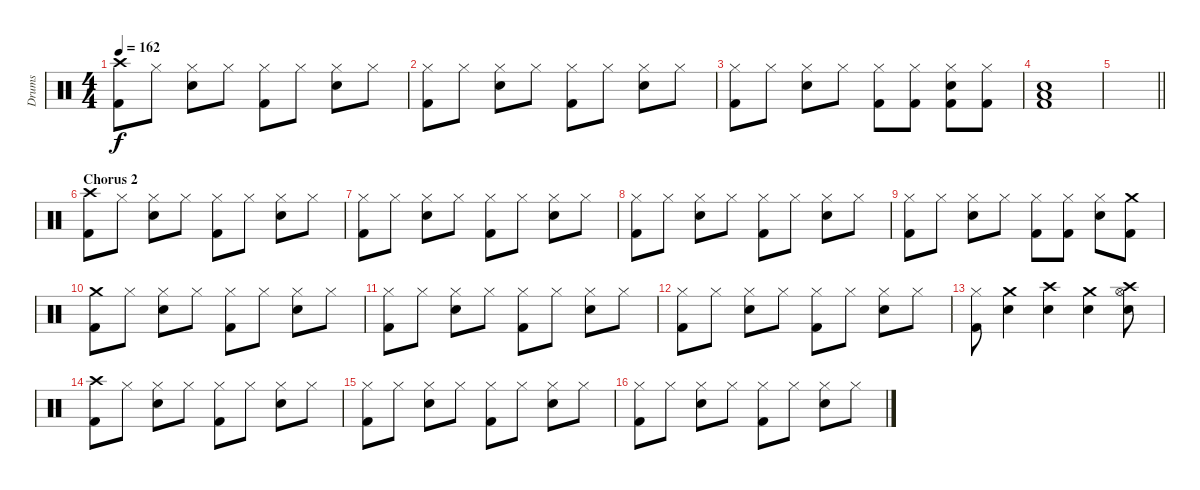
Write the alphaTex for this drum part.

\track ("Drums" "Drums") {instrument percussion}
\staff {score}
\articulation defaults
\ts (4 4)
\tempo 162
\clef neutral
\ks c
("Crash high (hit)" "Kick (hit) 2").8{dy f} "Hi-Hat (closed)".8 ("Hi-Hat (closed)" "Electric Snare (hit)").8 "Hi-Hat (closed)".8 ("Hi-Hat (closed)" "Kick (hit) 2").8 "Hi-Hat (closed)".8 ("Hi-Hat (closed)" "Electric Snare (hit)").8 "Hi-Hat (closed)".8 |
("Hi-Hat (closed)" "Kick (hit) 2").8 "Hi-Hat (closed)".8 ("Hi-Hat (closed)" "Electric Snare (hit)").8 "Hi-Hat (closed)".8 ("Hi-Hat (closed)" "Kick (hit) 2").8 "Hi-Hat (closed)".8 ("Hi-Hat (closed)" "Electric Snare (hit)").8 "Hi-Hat (closed)".8 |
("Hi-Hat (closed)" "Kick (hit) 2").8 "Hi-Hat (closed)".8 ("Hi-Hat (closed)" "Electric Snare (hit)").8 "Hi-Hat (closed)".8 ("Hi-Hat (closed)" "Kick (hit) 2").8 ("Hi-Hat (closed)" "Kick (hit) 2").8 ("Hi-Hat (closed)" "Electric Snare (hit)" "Kick (hit) 2").8 ("Hi-Hat (closed)" "Kick (hit) 2").8 |
("Low Floor Tom (hit)" "Electric Snare (hit)" "Kick (hit) 2").1 |
\barLineRight lightlight
|
\section ("" "Chorus 2")
("Crash high (hit)" "Kick (hit) 2").8 "Hi-Hat (closed)".8 ("Hi-Hat (closed)" "Electric Snare (hit)").8 "Hi-Hat (closed)".8 ("Hi-Hat (closed)" "Kick (hit) 2").8 "Hi-Hat (closed)".8 ("Hi-Hat (closed)" "Electric Snare (hit)").8 "Hi-Hat (closed)".8 |
("Hi-Hat (closed)" "Kick (hit) 2").8 "Hi-Hat (closed)".8 ("Hi-Hat (closed)" "Electric Snare (hit)").8 "Hi-Hat (closed)".8 ("Hi-Hat (closed)" "Kick (hit) 2").8 "Hi-Hat (closed)".8 ("Hi-Hat (closed)" "Electric Snare (hit)").8 "Hi-Hat (closed)".8 |
("Hi-Hat (closed)" "Kick (hit) 2").8 "Hi-Hat (closed)".8 ("Hi-Hat (closed)" "Electric Snare (hit)").8 "Hi-Hat (closed)".8 ("Hi-Hat (closed)" "Kick (hit) 2").8 "Hi-Hat (closed)".8 ("Hi-Hat (closed)" "Electric Snare (hit)").8 "Hi-Hat (closed)".8 |
("Hi-Hat (closed)" "Kick (hit) 2").8 "Hi-Hat (closed)".8 ("Hi-Hat (closed)" "Electric Snare (hit)").8 "Hi-Hat (closed)".8 ("Hi-Hat (closed)" "Kick (hit) 2").8 ("Hi-Hat (closed)" "Kick (hit) 2").8 ("Hi-Hat (closed)" "Electric Snare (hit)").8 ("Crash medium (hit)" "Kick (hit) 2").8 |
("Crash medium (hit)" "Kick (hit) 2").8 "Hi-Hat (closed)".8 ("Hi-Hat (closed)" "Electric Snare (hit)").8 "Hi-Hat (closed)".8 ("Hi-Hat (closed)" "Kick (hit) 2").8 "Hi-Hat (closed)".8 ("Hi-Hat (closed)" "Electric Snare (hit)").8 "Hi-Hat (closed)".8 |
("Hi-Hat (closed)" "Kick (hit) 2").8 "Hi-Hat (closed)".8 ("Hi-Hat (closed)" "Electric Snare (hit)").8 "Hi-Hat (closed)".8 ("Hi-Hat (closed)" "Kick (hit) 2").8 "Hi-Hat (closed)".8 ("Hi-Hat (closed)" "Electric Snare (hit)").8 "Hi-Hat (closed)".8 |
("Hi-Hat (closed)" "Kick (hit) 2").8 "Hi-Hat (closed)".8 ("Hi-Hat (closed)" "Electric Snare (hit)").8 "Hi-Hat (closed)".8 ("Hi-Hat (closed)" "Kick (hit) 2").8 "Hi-Hat (closed)".8 ("Hi-Hat (closed)" "Electric Snare (hit)").8 "Hi-Hat (closed)".8 |
("Hi-Hat (closed)" "Kick (hit) 2").8 ("Crash medium (hit)" "Electric Snare (hit)").4 ("Crash high (hit)" "Electric Snare (hit)").4 ("Crash medium (hit)" "Electric Snare (hit)").4 ("Crash high (hit)" "Hi-Hat (open)" "Electric Snare (hit)").8 |
("Crash high (hit)" "Kick (hit) 2").8 "Hi-Hat (closed)".8 ("Hi-Hat (closed)" "Electric Snare (hit)").8 "Hi-Hat (closed)".8 ("Hi-Hat (closed)" "Kick (hit) 2").8 "Hi-Hat (closed)".8 ("Hi-Hat (closed)" "Electric Snare (hit)").8 "Hi-Hat (closed)".8 |
("Hi-Hat (closed)" "Kick (hit) 2").8 "Hi-Hat (closed)".8 ("Hi-Hat (closed)" "Electric Snare (hit)").8 "Hi-Hat (closed)".8 ("Hi-Hat (closed)" "Kick (hit) 2").8 "Hi-Hat (closed)".8 ("Hi-Hat (closed)" "Electric Snare (hit)").8 "Hi-Hat (closed)".8 |
("Hi-Hat (closed)" "Kick (hit) 2").8 "Hi-Hat (closed)".8 ("Hi-Hat (closed)" "Electric Snare (hit)").8 "Hi-Hat (closed)".8 ("Hi-Hat (closed)" "Kick (hit) 2").8 "Hi-Hat (closed)".8 ("Hi-Hat (closed)" "Electric Snare (hit)").8 "Hi-Hat (closed)".8
